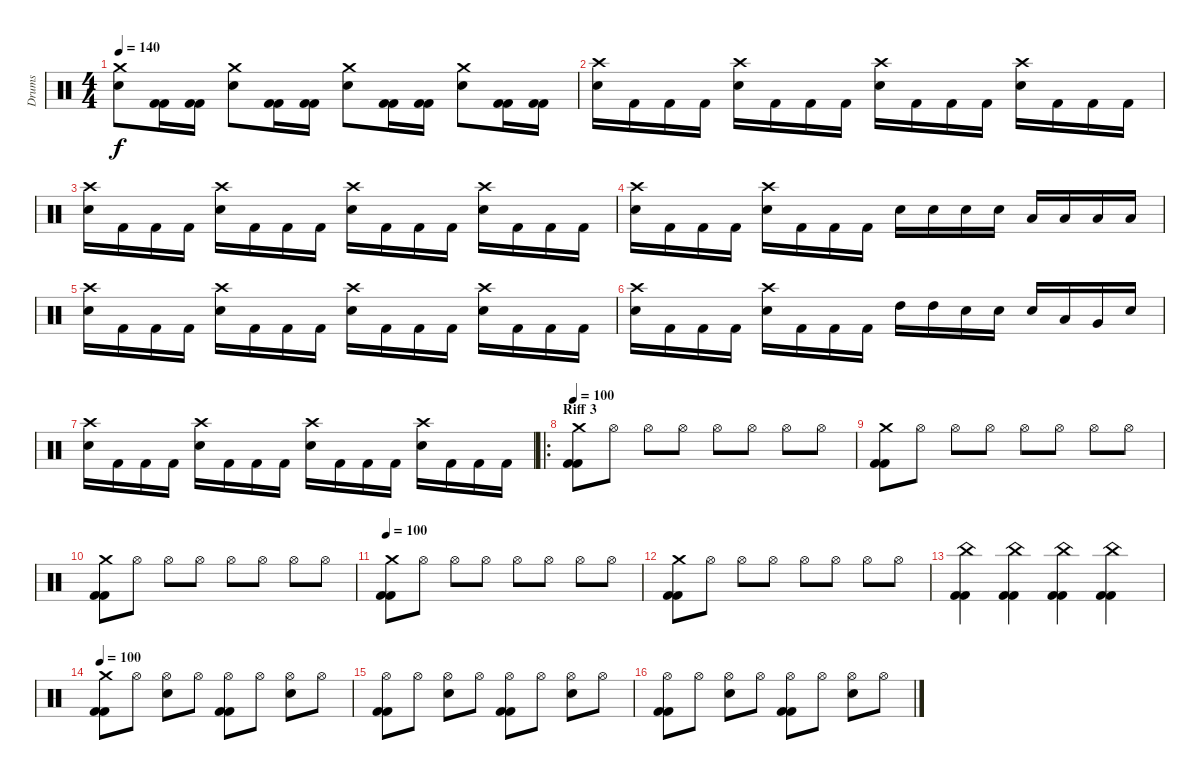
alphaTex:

\track ("Drums" "Drums") {instrument percussion}
\staff {score}
\articulation defaults
\ts (4 4)
\tempo 140
\clef neutral
\ks c
("Crash medium (hit)" "Electric Snare (hit)").8{dy f} ("Kick (hit) 2" "Kick (hit) 2").16 ("Kick (hit) 2" "Kick (hit) 2").16 ("Electric Snare (hit)" "Crash medium (hit)").8 ("Kick (hit) 2" "Kick (hit) 2").16 ("Kick (hit) 2" "Kick (hit) 2").16 ("Crash medium (hit)" "Electric Snare (hit)").8 ("Kick (hit) 2" "Kick (hit) 2").16 ("Kick (hit) 2" "Kick (hit) 2").16 ("Electric Snare (hit)" "Crash medium (hit)").8 ("Kick (hit) 2" "Kick (hit) 2").16 ("Kick (hit) 2" "Kick (hit) 2").16 |
("Crash high (hit)" "Electric Snare (hit)").16 "Kick (hit) 2".16 "Kick (hit) 2".16 "Kick (hit) 2".16 ("Crash high (hit)" "Electric Snare (hit)").16 "Kick (hit) 2".16 "Kick (hit) 2".16 "Kick (hit) 2".16 ("Electric Snare (hit)" "Crash high (hit)").16 "Kick (hit) 2".16 "Kick (hit) 2".16 "Kick (hit) 2".16 ("Crash high (hit)" "Electric Snare (hit)").16 "Kick (hit) 2".16 "Kick (hit) 2".16 "Kick (hit) 2".16 |
("Crash high (hit)" "Electric Snare (hit)").16 "Kick (hit) 2".16 "Kick (hit) 2".16 "Kick (hit) 2".16 ("Crash high (hit)" "Electric Snare (hit)").16 "Kick (hit) 2".16 "Kick (hit) 2".16 "Kick (hit) 2".16 ("Electric Snare (hit)" "Crash high (hit)").16 "Kick (hit) 2".16 "Kick (hit) 2".16 "Kick (hit) 2".16 ("Crash high (hit)" "Electric Snare (hit)").16 "Kick (hit) 2".16 "Kick (hit) 2".16 "Kick (hit) 2".16 |
("Crash high (hit)" "Electric Snare (hit)").16 "Kick (hit) 2".16 "Kick (hit) 2".16 "Kick (hit) 2".16 ("Crash high (hit)" "Electric Snare (hit)").16 "Kick (hit) 2".16 "Kick (hit) 2".16 "Kick (hit) 2".16 "Electric Snare (hit)".16 "Electric Snare (hit)".16 "Electric Snare (hit)".16 "Electric Snare (hit)".16 "Low Tom (hit)".16 "Low Tom (hit)".16 "Low Tom (hit)".16 "Low Tom (hit)".16 |
("Crash high (hit)" "Electric Snare (hit)").16 "Kick (hit) 2".16 "Kick (hit) 2".16 "Kick (hit) 2".16 ("Crash high (hit)" "Electric Snare (hit)").16 "Kick (hit) 2".16 "Kick (hit) 2".16 "Kick (hit) 2".16 ("Electric Snare (hit)" "Crash high (hit)").16 "Kick (hit) 2".16 "Kick (hit) 2".16 "Kick (hit) 2".16 ("Crash high (hit)" "Electric Snare (hit)").16 "Kick (hit) 2".16 "Kick (hit) 2".16 "Kick (hit) 2".16 |
("Crash high (hit)" "Electric Snare (hit)").16 "Kick (hit) 2".16 "Kick (hit) 2".16 "Kick (hit) 2".16 ("Crash high (hit)" "Electric Snare (hit)").16 "Kick (hit) 2".16 "Kick (hit) 2".16 "Kick (hit) 2".16 "High Tom (hit)".16 "High Tom (hit)".16 "Electric Snare (hit)".16 "Electric Snare (hit)".16 "Electric Snare (hit)".16 "Low Tom (hit)".16 "Very Low Tom (hit)".16 "Electric Snare (hit)".16 |
("Crash high (hit)" "Electric Snare (hit)").16 "Kick (hit) 2".16 "Kick (hit) 2".16 "Kick (hit) 2".16 ("Crash high (hit)" "Electric Snare (hit)").16 "Kick (hit) 2".16 "Kick (hit) 2".16 "Kick (hit) 2".16 ("Electric Snare (hit)" "Crash high (hit)").16 "Kick (hit) 2".16 "Kick (hit) 2".16 "Kick (hit) 2".16 ("Crash high (hit)" "Electric Snare (hit)").16 "Kick (hit) 2".16 "Kick (hit) 2".16 "Kick (hit) 2".16 |
\ro
\section ("" "Riff 3")
\tempo 100
("Crash medium (hit)" "Kick (hit) 2" "Kick (hit) 2").8 "Hi-Hat (open)".8 "Hi-Hat (open)".8 "Hi-Hat (open)".8 "Hi-Hat (open)".8 "Hi-Hat (open)".8 "Hi-Hat (open)".8 "Hi-Hat (open)".8 |
("Crash medium (hit)" "Kick (hit) 2" "Kick (hit) 2").8 "Hi-Hat (open)".8 "Hi-Hat (open)".8 "Hi-Hat (open)".8 "Hi-Hat (open)".8 "Hi-Hat (open)".8 "Hi-Hat (open)".8 "Hi-Hat (open)".8 |
("Crash medium (hit)" "Kick (hit) 2" "Kick (hit) 2").8 "Hi-Hat (open)".8 "Hi-Hat (open)".8 "Hi-Hat (open)".8 "Hi-Hat (open)".8 "Hi-Hat (open)".8 "Hi-Hat (open)".8 "Hi-Hat (open)".8 |
\tempo 100
("Crash medium (hit)" "Kick (hit) 2" "Kick (hit) 2").8 "Hi-Hat (open)".8 "Hi-Hat (open)".8 "Hi-Hat (open)".8 "Hi-Hat (open)".8 "Hi-Hat (open)".8 "Hi-Hat (open)".8 "Hi-Hat (open)".8 |
("Crash medium (hit)" "Kick (hit) 2" "Kick (hit) 2").8 "Hi-Hat (open)".8 "Hi-Hat (open)".8 "Hi-Hat (open)".8 "Hi-Hat (open)".8 "Hi-Hat (open)".8 "Hi-Hat (open)".8 "Hi-Hat (open)".8 |
("China (hit)" "Kick (hit) 2" "Kick (hit) 2").4 ("Kick (hit) 2" "Kick (hit) 2" "China (hit)").4 ("China (hit)" "Kick (hit) 2" "Kick (hit) 2").4 ("Kick (hit) 2" "Kick (hit) 2" "China (hit)").4 |
\tempo 100
("Crash medium (hit)" "Kick (hit) 2" "Kick (hit) 2").8 "Hi-Hat (open)".8 ("Electric Snare (hit)" "Hi-Hat (open)").8 "Hi-Hat (open)".8 ("Hi-Hat (open)" "Kick (hit) 2" "Kick (hit) 2").8 "Hi-Hat (open)".8 ("Electric Snare (hit)" "Hi-Hat (open)").8 "Hi-Hat (open)".8 |
("Kick (hit) 2" "Kick (hit) 2" "Hi-Hat (open)").8 "Hi-Hat (open)".8 ("Hi-Hat (open)" "Electric Snare (hit)").8 "Hi-Hat (open)".8 ("Hi-Hat (open)" "Kick (hit) 2" "Kick (hit) 2").8 "Hi-Hat (open)".8 ("Electric Snare (hit)" "Hi-Hat (open)").8 "Hi-Hat (open)".8 |
("Kick (hit) 2" "Kick (hit) 2" "Hi-Hat (open)").8 "Hi-Hat (open)".8 ("Hi-Hat (open)" "Electric Snare (hit)").8 "Hi-Hat (open)".8 ("Hi-Hat (open)" "Kick (hit) 2" "Kick (hit) 2").8 "Hi-Hat (open)".8 ("Electric Snare (hit)" "Hi-Hat (open)").8 "Hi-Hat (open)".8
